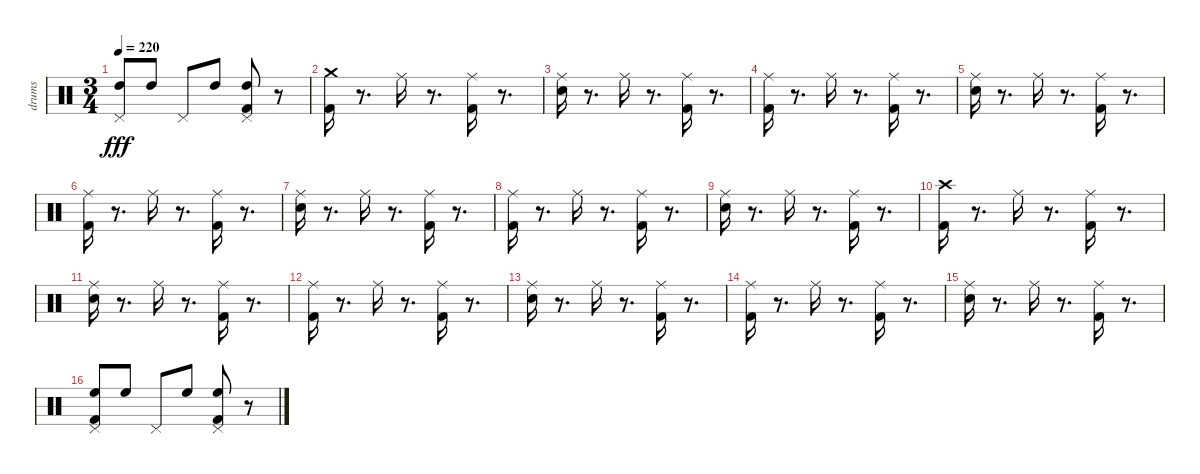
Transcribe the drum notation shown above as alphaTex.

\track ("drums" "drums") {instrument percussion}
\staff {score}
\articulation defaults
\ts (3 4)
\tempo 220
\clef neutral
\ks c
("Pedal Hi-Hat (hit)" "High Tom (hit)").8{dy fff} "High Tom (hit)".8 "Pedal Hi-Hat (hit)".8 "High Tom (hit)".8 ("Pedal Hi-Hat (hit)" "High Tom (hit)" "Kick (hit) 2").8 r.8 |
("Crash medium (hit)" "Kick (hit) 2").16 r.8{d} "Ride (middle)".16 r.8{d} ("Ride (middle)" "Kick (hit) 2").16 r.8{d} |
("Ride (middle)" "Snare (hit) 2").16 r.8{d} "Ride (middle)".16 r.8{d} ("Kick (hit) 2" "Ride (middle)").16 r.8{d} |
("Ride (middle)" "Kick (hit) 2").16 r.8{d} "Ride (middle)".16 r.8{d} ("Ride (middle)" "Kick (hit) 2").16 r.8{d} |
("Ride (middle)" "Snare (hit) 2").16 r.8{d} "Ride (middle)".16 r.8{d} ("Ride (middle)" "Kick (hit) 2").16 r.8{d} |
("Ride (middle)" "Kick (hit) 2").16 r.8{d} "Ride (middle)".16 r.8{d} ("Ride (middle)" "Kick (hit) 2").16 r.8{d} |
("Snare (hit) 2" "Ride (middle)").16 r.8{d} "Ride (middle)".16 r.8{d} ("Kick (hit) 2" "Ride (middle)").16 r.8{d} |
("Kick (hit) 2" "Ride (middle)").16 r.8{d} "Ride (middle)".16 r.8{d} ("Kick (hit) 2" "Ride (middle)").16 r.8{d} |
("Ride (middle)" "Snare (hit) 2").16 r.8{d} "Ride (middle)".16 r.8{d} ("Kick (hit) 2" "Ride (middle)").16 r.8{d} |
("Kick (hit) 2" "Crash high (hit)").16 r.8{d} "Ride (middle)".16 r.8{d} ("Kick (hit) 2" "Ride (middle)").16 r.8{d} |
("Snare (hit) 2" "Ride (middle)").16 r.8{d} "Ride (middle)".16 r.8{d} ("Ride (middle)" "Kick (hit) 2").16 r.8{d} |
("Kick (hit) 2" "Ride (middle)").16 r.8{d} "Ride (middle)".16 r.8{d} ("Ride (middle)" "Kick (hit) 2").16 r.8{d} |
("Snare (hit) 2" "Ride (middle)").16 r.8{d} "Ride (middle)".16 r.8{d} ("Kick (hit) 2" "Ride (middle)").16 r.8{d} |
("Ride (middle)" "Kick (hit) 2").16 r.8{d} "Ride (middle)".16 r.8{d} ("Kick (hit) 2" "Ride (middle)").16 r.8{d} |
("Snare (hit) 2" "Ride (middle)").16 r.8{d} "Ride (middle)".16 r.8{d} ("Ride (middle)" "Kick (hit) 2").16 r.8{d} |
("Pedal Hi-Hat (hit)" "High Floor Tom (hit)" "Kick (hit) 2").8 "High Floor Tom (hit)".8 "Pedal Hi-Hat (hit)".8 "High Floor Tom (hit)".8 ("Pedal Hi-Hat (hit)" "High Floor Tom (hit)" "Kick (hit) 2").8 r.8
